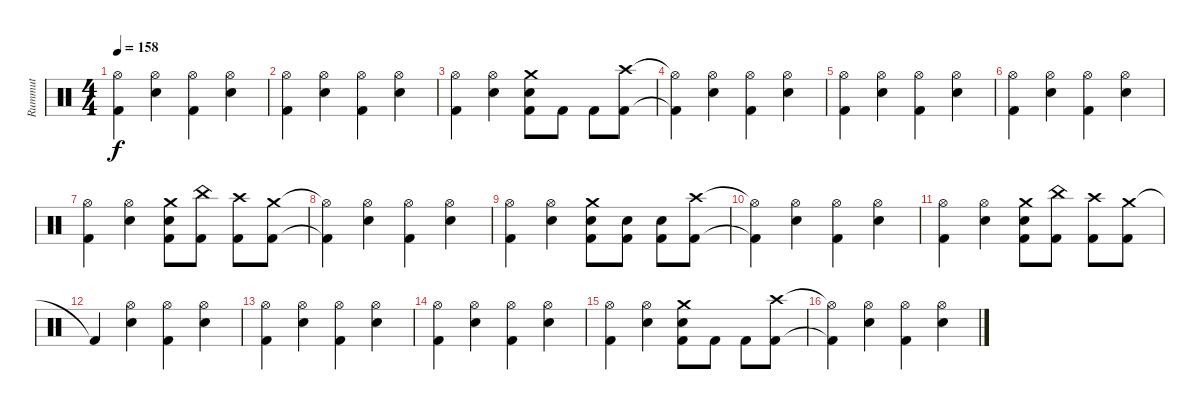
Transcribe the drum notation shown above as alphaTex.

\track ("Rummut" "Rummut") {instrument percussion}
\staff {score}
\articulation defaults
\ts (4 4)
\tempo 158
\clef neutral
\ks c
("Hi-Hat (open)" "Kick (hit) 2").4{dy f} ("Hi-Hat (open)" "Electric Snare (hit)").4 ("Hi-Hat (open)" "Kick (hit) 2").4 ("Hi-Hat (open)" "Electric Snare (hit)").4 |
("Hi-Hat (open)" "Kick (hit) 2").4 ("Hi-Hat (open)" "Electric Snare (hit)").4 ("Hi-Hat (open)" "Kick (hit) 2").4 ("Hi-Hat (open)" "Electric Snare (hit)").4 |
("Hi-Hat (open)" "Kick (hit) 2").4 ("Hi-Hat (open)" "Electric Snare (hit)").4 ("Crash medium (hit)" "Electric Snare (hit)" "Kick (hit) 2").8 "Kick (hit) 2".8 "Kick (hit) 2".8 ("Crash high (hit)" "Kick (hit) 2").8 |
("Hi-Hat (open)"{t} "Kick (hit) 2"{t}).4 ("Hi-Hat (open)" "Electric Snare (hit)").4 ("Hi-Hat (open)" "Kick (hit) 2").4 ("Hi-Hat (open)" "Electric Snare (hit)").4 |
("Hi-Hat (open)" "Kick (hit) 2").4 ("Hi-Hat (open)" "Electric Snare (hit)").4 ("Hi-Hat (open)" "Kick (hit) 2").4 ("Hi-Hat (open)" "Electric Snare (hit)").4 |
("Hi-Hat (open)" "Kick (hit) 2").4 ("Hi-Hat (open)" "Electric Snare (hit)").4 ("Hi-Hat (open)" "Kick (hit) 2").4 ("Hi-Hat (open)" "Electric Snare (hit)").4 |
("Hi-Hat (open)" "Kick (hit) 2").4 ("Hi-Hat (open)" "Electric Snare (hit)").4 ("Crash medium (hit)" "Electric Snare (hit)" "Kick (hit) 2").8 ("China (hit)" "Kick (hit) 2").8 ("Crash high (hit)" "Kick (hit) 2").8 ("Crash medium (hit)" "Kick (hit) 2").8 |
("Hi-Hat (open)"{t} "Kick (hit) 2"{t}).4 ("Hi-Hat (open)" "Electric Snare (hit)").4 ("Hi-Hat (open)" "Kick (hit) 2").4 ("Hi-Hat (open)" "Electric Snare (hit)").4 |
("Hi-Hat (open)" "Kick (hit) 2").4 ("Hi-Hat (open)" "Electric Snare (hit)").4 ("Crash medium (hit)" "Electric Snare (hit)" "Kick (hit) 2").8 ("Electric Snare (hit)" "Kick (hit) 2").8 ("Electric Snare (hit)" "Kick (hit) 2").8 ("Crash high (hit)" "Kick (hit) 2").8 |
("Hi-Hat (open)"{t} "Kick (hit) 2"{t}).4 ("Hi-Hat (open)" "Electric Snare (hit)").4 ("Hi-Hat (open)" "Kick (hit) 2").4 ("Hi-Hat (open)" "Electric Snare (hit)").4 |
("Hi-Hat (open)" "Kick (hit) 2").4 ("Hi-Hat (open)" "Electric Snare (hit)").4 ("Crash medium (hit)" "Electric Snare (hit)" "Kick (hit) 2").8 ("China (hit)" "Kick (hit) 2").8 ("Crash high (hit)" "Kick (hit) 2").8 ("Crash medium (hit)" "Kick (hit) 2").8 |
"Kick (hit) 2"{t}.4 ("Hi-Hat (open)" "Electric Snare (hit)").4 ("Hi-Hat (open)" "Kick (hit) 2").4 ("Hi-Hat (open)" "Electric Snare (hit)").4 |
("Hi-Hat (open)" "Kick (hit) 2").4 ("Hi-Hat (open)" "Electric Snare (hit)").4 ("Hi-Hat (open)" "Kick (hit) 2").4 ("Hi-Hat (open)" "Electric Snare (hit)").4 |
("Hi-Hat (open)" "Kick (hit) 2").4 ("Hi-Hat (open)" "Electric Snare (hit)").4 ("Hi-Hat (open)" "Kick (hit) 2").4 ("Hi-Hat (open)" "Electric Snare (hit)").4 |
("Hi-Hat (open)" "Kick (hit) 2").4 ("Hi-Hat (open)" "Electric Snare (hit)").4 ("Crash medium (hit)" "Electric Snare (hit)" "Kick (hit) 2").8 "Kick (hit) 2".8 "Kick (hit) 2".8 ("Crash high (hit)" "Kick (hit) 2").8 |
("Hi-Hat (open)"{t} "Kick (hit) 2"{t}).4 ("Hi-Hat (open)" "Electric Snare (hit)").4 ("Hi-Hat (open)" "Kick (hit) 2").4 ("Hi-Hat (open)" "Electric Snare (hit)").4
